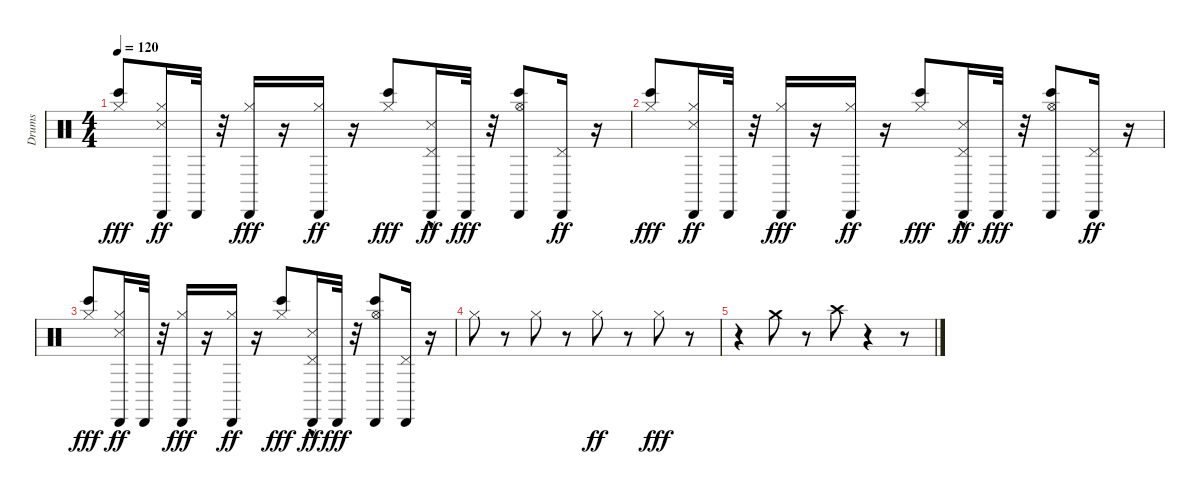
\track ("Drums" "Drums") {instrument percussion}
\staff {score}
\articulation defaults
\ts (4 4)
\tempo 120
\clef neutral
\ks c
("Hi-Hat (closed)" "Bongo High (hit)").8{dy fff} ("Snare (side stick) 3" "Cabasa (hit)" "Hi-Hat (closed)").16{dy ff} "Cabasa (hit)".32 r.32 ("Cabasa (hit)" "Hi-Hat (closed)").16{dy fff} r.16 ("Cabasa (hit)" "Hi-Hat (closed)").16{dy ff} r.16 ("Hi-Hat (closed)" "Bongo High (hit)").8{dy fff} ("Snare (side stick) 3"{hac} "Cabasa (hit)" "Pedal Hi-Hat (hit)").16{dy ff} "Cabasa (hit)".32{dy fff} r.32 ("Cabasa (hit)" "Hi-Hat (open)" "Bongo High (hit)").8 ("Cabasa (hit)" "Pedal Hi-Hat (hit)").16{dy ff} r.16 |
("Hi-Hat (closed)" "Bongo High (hit)").8{dy fff} ("Snare (side stick) 3" "Cabasa (hit)" "Hi-Hat (closed)").16{dy ff} "Cabasa (hit)".32 r.32 ("Cabasa (hit)" "Hi-Hat (closed)").16{dy fff} r.16 ("Cabasa (hit)" "Hi-Hat (closed)").16{dy ff} r.16 ("Hi-Hat (closed)" "Bongo High (hit)").8{dy fff} ("Snare (side stick) 3"{hac} "Cabasa (hit)" "Pedal Hi-Hat (hit)").16{dy ff} "Cabasa (hit)".32{dy fff} r.32 ("Cabasa (hit)" "Hi-Hat (open)" "Bongo High (hit)").8 ("Cabasa (hit)" "Pedal Hi-Hat (hit)").16{dy ff} r.16 |
("Hi-Hat (closed)" "Bongo High (hit)").8{dy fff} ("Snare (side stick) 3" "Cabasa (hit)" "Hi-Hat (closed)").16{dy ff} "Cabasa (hit)".32 r.32 ("Cabasa (hit)" "Hi-Hat (closed)").16{dy fff} r.16 ("Cabasa (hit)" "Hi-Hat (closed)").16{dy ff} r.16 ("Hi-Hat (closed)" "Bongo High (hit)").8{dy fff} ("Snare (side stick) 3"{hac} "Cabasa (hit)" "Pedal Hi-Hat (hit)").16{dy ff} "Cabasa (hit)".32{dy fff} r.32 ("Cabasa (hit)" "Hi-Hat (open)" "Bongo High (hit)").8 ("Pedal Hi-Hat (hit)" "Cabasa (hit)").16 r.16 |
"Hi-Hat (closed)".8 r.8 "Hi-Hat (closed)".8 r.8 "Hi-Hat (closed)".8{dy ff} r.8 "Hi-Hat (closed)".8{dy fff} r.8 |
r.4 "Crash medium (hit)".8 r.8 "Crash high (hit)".8 r.4 r.8
